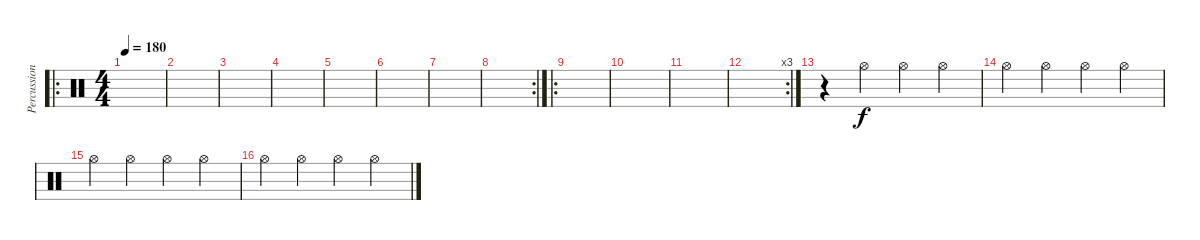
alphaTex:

\track ("Percussion" "Percussion") {instrument percussion}
\staff {score}
\articulation defaults
\ro
\ts (4 4)
\tempo 180
\clef neutral
\ks c
|
|
|
|
|
|
|
\rc 2
|
\ro
|
|
|
\rc 3
|
r.4 "Hi-Hat (open)".4 "Hi-Hat (open)".4 "Hi-Hat (open)".4 |
"Hi-Hat (open)".4 "Hi-Hat (open)".4 "Hi-Hat (open)".4 "Hi-Hat (open)".4 |
"Hi-Hat (open)".4 "Hi-Hat (open)".4 "Hi-Hat (open)".4 "Hi-Hat (open)".4 |
"Hi-Hat (open)".4 "Hi-Hat (open)".4 "Hi-Hat (open)".4 "Hi-Hat (open)".4
